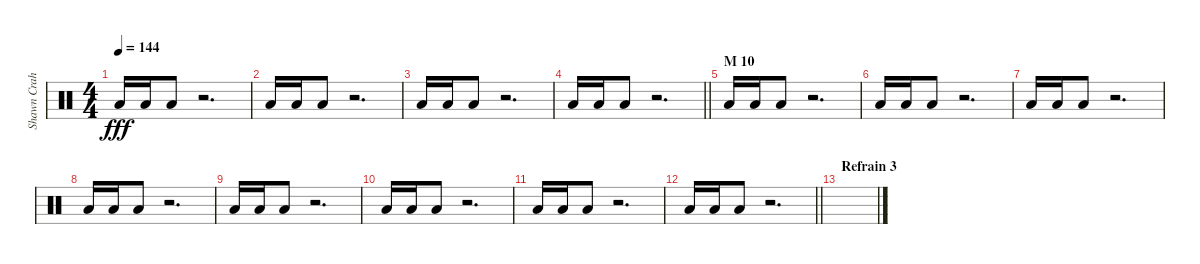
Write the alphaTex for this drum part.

\track ("Shawn Crahan" "Shawn Crah") {instrument percussion}
\staff {score}
\articulation defaults
\ts (4 4)
\tempo 144
\clef neutral
\ks c "Low Floor Tom (hit)".16{dy fff} "Low Floor Tom (hit)".16 "Low Floor Tom (hit)".8
r.2{d} |
"Low Floor Tom (hit)".16 "Low Floor Tom (hit)".16 "Low Floor Tom (hit)".8 r.2{d} |
"Low Floor Tom (hit)".16 "Low Floor Tom (hit)".16 "Low Floor Tom (hit)".8 r.2{d} |
\barLineRight lightlight "Low Floor Tom (hit)".16 "Low Floor Tom (hit)".16 "Low Floor Tom (hit)".8
r.2{d} |
\section ("" "M 10")
"Low Floor Tom (hit)".16 "Low Floor Tom (hit)".16 "Low Floor Tom (hit)".8 r.2{d} |
"Low Floor Tom (hit)".16 "Low Floor Tom (hit)".16 "Low Floor Tom (hit)".8 r.2{d} |
"Low Floor Tom (hit)".16 "Low Floor Tom (hit)".16 "Low Floor Tom (hit)".8 r.2{d} |
"Low Floor Tom (hit)".16 "Low Floor Tom (hit)".16 "Low Floor Tom (hit)".8 r.2{d} |
"Low Floor Tom (hit)".16 "Low Floor Tom (hit)".16 "Low Floor Tom (hit)".8 r.2{d} |
"Low Floor Tom (hit)".16 "Low Floor Tom (hit)".16 "Low Floor Tom (hit)".8 r.2{d} |
"Low Floor Tom (hit)".16 "Low Floor Tom (hit)".16 "Low Floor Tom (hit)".8 r.2{d} |
\barLineRight lightlight "Low Floor Tom (hit)".16 "Low Floor Tom (hit)".16 "Low Floor Tom (hit)".8
r.2{d} |
\section ("" "Refrain 3")
